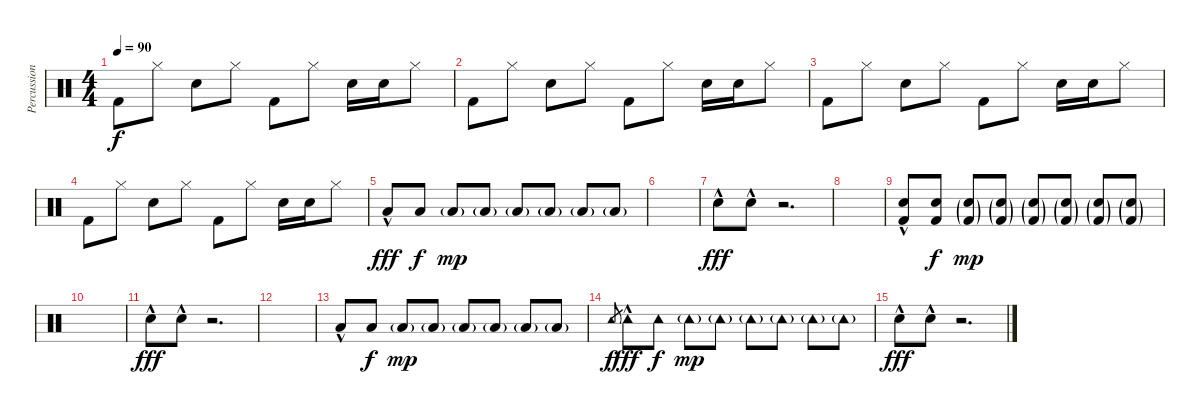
\track ("Percussion" "Percussion") {instrument percussion}
\staff {score}
\articulation defaults
\ts (4 4)
\tempo 90
\clef neutral
\ks c "Kick (hit) 2".8{dy f} "Hi-Hat (closed)".8 "Snare (hit) 2".8 "Hi-Hat (closed)".8 "Kick (hit) 2".8 "Hi-Hat (closed)".8 "Snare (hit) 2".16 "Snare (hit) 2".16 "Hi-Hat (closed)".8
|
"Kick (hit) 2".8 "Hi-Hat (closed)".8 "Snare (hit) 2".8 "Hi-Hat (closed)".8 "Kick (hit) 2".8 "Hi-Hat (closed)".8 "Snare (hit) 2".16 "Snare (hit) 2".16 "Hi-Hat (closed)".8 |
"Kick (hit) 2".8 "Hi-Hat (closed)".8 "Snare (hit) 2".8 "Hi-Hat (closed)".8 "Kick (hit) 2".8 "Hi-Hat (closed)".8 "Snare (hit) 2".16 "Snare (hit) 2".16 "Hi-Hat (closed)".8 |
"Kick (hit) 2".8 "Hi-Hat (closed)".8 "Snare (hit) 2".8 "Hi-Hat (closed)".8 "Kick (hit) 2".8 "Hi-Hat (closed)".8 "Snare (hit) 2".16 "Snare (hit) 2".16 "Hi-Hat (closed)".8 |
"Low Floor Tom (hit)"{hac}.8{dy fff} "Low Floor Tom (hit)".8{dy f} "Low Floor Tom (hit)"{g}.8{dy mp} "Low Floor Tom (hit)"{g}.8 "Low Floor Tom (hit)"{g}.8 "Low Floor Tom (hit)"{g}.8 "Low Floor Tom (hit)"{g}.8 "Low Floor Tom (hit)"{g}.8 |
|
"Snare (hit) 2"{hac}.8{dy fff} "Snare (hit) 2"{hac}.8 r.2{d} |
|
("Snare (hit) 2"{hac} "Kick (hit) 2"{hac}).8 ("Snare (hit) 2" "Kick (hit) 2").8{dy f} ("Snare (hit) 2"{g} "Kick (hit) 2"{g}).8{dy mp} ("Snare (hit) 2"{g} "Kick (hit) 2"{g}).8 ("Snare (hit) 2"{g} "Kick (hit) 2"{g}).8 ("Snare (hit) 2"{g} "Kick (hit) 2"{g}).8 ("Snare (hit) 2"{g} "Kick (hit) 2"{g}).8 ("Snare (hit) 2"{g} "Kick (hit) 2"{g}).8 |
|
"Snare (hit) 2"{hac}.8{dy fff} "Snare (hit) 2"{hac}.8 r.2{d} |
|
"Low Floor Tom (hit)"{hac}.8 "Low Floor Tom (hit)".8{dy f} "Low Floor Tom (hit)"{g}.8{dy mp} "Low Floor Tom (hit)"{g}.8 "Low Floor Tom (hit)"{g}.8 "Low Floor Tom (hit)"{g}.8 "Low Floor Tom (hit)"{g}.8 "Low Floor Tom (hit)"{g}.8 |
"Tambourine (hit)".8{gr dy f} "Tambourine (hit)"{hac}.8{dy fff} "Tambourine (hit)".8{dy f} "Tambourine (hit)"{g}.8{dy mp} "Tambourine (hit)"{g}.8 "Tambourine (hit)"{g}.8 "Tambourine (hit)"{g}.8 "Tambourine (hit)"{g}.8 "Tambourine (hit)"{g}.8 |
"Snare (hit) 2"{hac}.8{dy fff} "Snare (hit) 2"{hac}.8 r.2{d}
